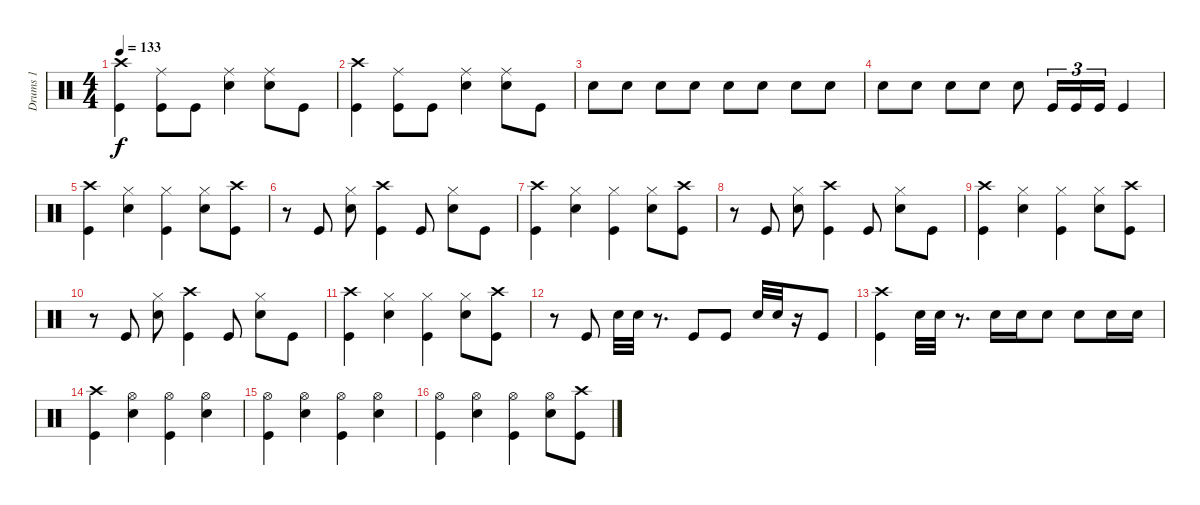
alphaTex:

\track ("Drums 1" "Drums 1") {instrument percussion}
\staff {score}
\articulation defaults
\ts (4 4)
\tempo 133
\clef neutral
\ks c
("Crash high (hit)" "Kick (hit)").4{dy f} ("Ride (middle)" "Kick (hit)").8 "Kick (hit)".8 ("Ride (middle)" "Snare (hit) 2").4 ("Ride (middle)" "Snare (hit) 2").8 "Kick (hit)".8 |
("Crash high (hit)" "Kick (hit)").4 ("Ride (middle)" "Kick (hit)").8 "Kick (hit)".8 ("Ride (middle)" "Snare (hit) 2").4 ("Ride (middle)" "Snare (hit) 2").8 "Kick (hit)".8 |
"Snare (hit) 2".8 "Snare (hit) 2".8 "Snare (hit) 2".8 "Snare (hit) 2".8 "Snare (hit) 2".8 "Snare (hit) 2".8 "Snare (hit) 2".8 "Snare (hit) 2".8 |
"Snare (hit) 2".8 "Snare (hit) 2".8 "Snare (hit) 2".8 "Snare (hit) 2".8 "Snare (hit) 2".8 "Kick (hit)".16{tu (3 2)} "Kick (hit)".16{tu (3 2)} "Kick (hit)".16{tu (3 2)} "Kick (hit)".4 |
("Crash high (hit)" "Kick (hit)").4 ("Hi-Hat (closed)" "Snare (hit) 2").4 ("Hi-Hat (closed)" "Kick (hit)").4 ("Hi-Hat (closed)" "Snare (hit) 2").8 ("Crash high (hit)" "Kick (hit)").8 |
r.8 "Kick (hit)".8 ("Hi-Hat (closed)" "Snare (hit) 2").8 ("Crash high (hit)" "Kick (hit)").4 "Kick (hit)".8 ("Hi-Hat (closed)" "Snare (hit) 2").8 "Kick (hit)".8 |
("Crash high (hit)" "Kick (hit)").4 ("Hi-Hat (closed)" "Snare (hit) 2").4 ("Hi-Hat (closed)" "Kick (hit)").4 ("Hi-Hat (closed)" "Snare (hit) 2").8 ("Crash high (hit)" "Kick (hit)").8 |
r.8 "Kick (hit)".8 ("Hi-Hat (closed)" "Snare (hit) 2").8 ("Crash high (hit)" "Kick (hit)").4 "Kick (hit)".8 ("Hi-Hat (closed)" "Snare (hit) 2").8 "Kick (hit)".8 |
("Crash high (hit)" "Kick (hit)").4 ("Hi-Hat (closed)" "Snare (hit) 2").4 ("Hi-Hat (closed)" "Kick (hit)").4 ("Hi-Hat (closed)" "Snare (hit) 2").8 ("Crash high (hit)" "Kick (hit)").8 |
r.8 "Kick (hit)".8 ("Hi-Hat (closed)" "Snare (hit) 2").8 ("Crash high (hit)" "Kick (hit)").4 "Kick (hit)".8 ("Hi-Hat (closed)" "Snare (hit) 2").8 "Kick (hit)".8 |
("Crash high (hit)" "Kick (hit)").4 ("Hi-Hat (closed)" "Snare (hit) 2").4 ("Hi-Hat (closed)" "Kick (hit)").4 ("Hi-Hat (closed)" "Snare (hit) 2").8 ("Crash high (hit)" "Kick (hit)").8 |
r.8 "Kick (hit)".8 "Snare (hit) 2".32 "Snare (hit) 2".32 r.8{d} "Kick (hit)".8 "Kick (hit)".8 "Snare (hit) 2".32 "Snare (hit) 2".32 r.16 "Kick (hit)".8 |
("Crash high (hit)" "Kick (hit)").4 "Snare (hit) 2".32 "Snare (hit) 2".32 r.8{d} "Snare (hit) 2".16 "Snare (hit) 2".16 "Snare (hit) 2".8 "Snare (hit) 2".8 "Snare (hit) 2".16 "Snare (hit) 2".16 |
("Crash high (hit)" "Kick (hit)").4 ("Hi-Hat (open)" "Snare (hit) 2").4 ("Hi-Hat (open)" "Kick (hit)").4 ("Hi-Hat (open)" "Snare (hit) 2").4 |
("Hi-Hat (open)" "Kick (hit)").4 ("Hi-Hat (open)" "Snare (hit) 2").4 ("Hi-Hat (open)" "Kick (hit)").4 ("Hi-Hat (open)" "Snare (hit) 2").4 |
("Hi-Hat (open)" "Kick (hit)").4 ("Hi-Hat (open)" "Snare (hit) 2").4 ("Hi-Hat (open)" "Kick (hit)").4 ("Hi-Hat (open)" "Snare (hit) 2").8 ("Crash high (hit)" "Kick (hit)").8
